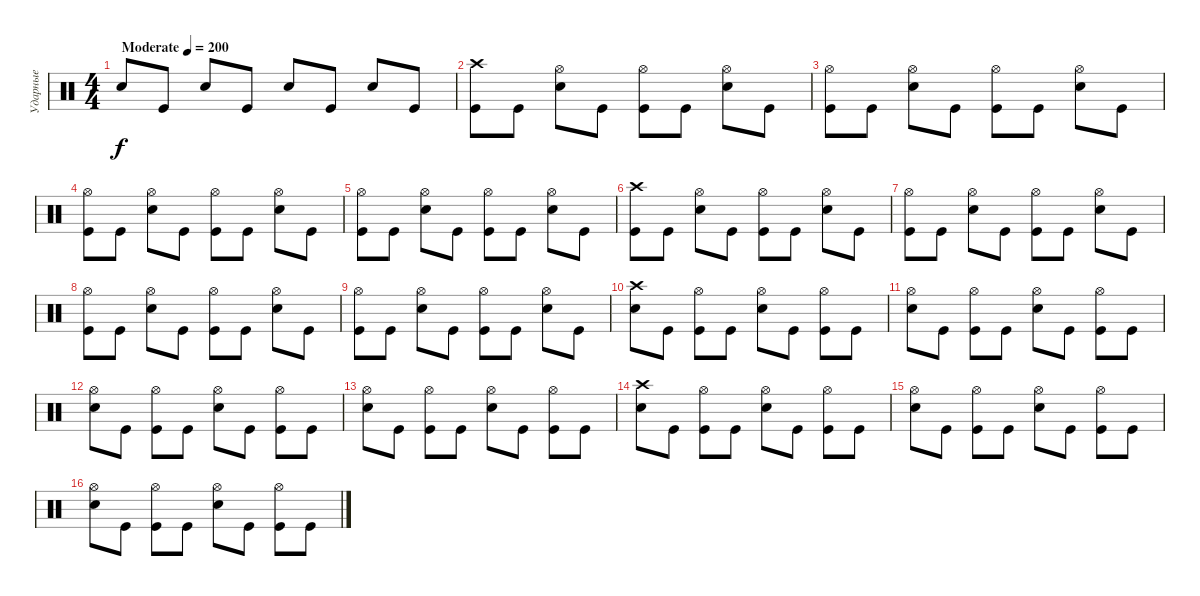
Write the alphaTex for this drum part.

\track ("Ударные" "Ударные") {instrument percussion}
\staff {score}
\articulation defaults
\ts (4 4)
\tempo (200 "Moderate")
\clef neutral
\ks c "Snare (hit) 2".8{dy f} "Kick (hit)".8 "Snare (hit) 2".8 "Kick (hit)".8 "Snare (hit) 2".8 "Kick (hit)".8 "Snare (hit) 2".8 "Kick (hit)".8
|
("Kick (hit)" "Crash high (hit)").8 "Kick (hit)".8 ("Snare (hit) 2" "Hi-Hat (open)").8 "Kick (hit)".8 ("Kick (hit)" "Hi-Hat (open)").8 "Kick (hit)".8 ("Snare (hit) 2" "Hi-Hat (open)").8 "Kick (hit)".8 |
("Kick (hit)" "Hi-Hat (open)").8 "Kick (hit)".8 ("Snare (hit) 2" "Hi-Hat (open)").8 "Kick (hit)".8 ("Kick (hit)" "Hi-Hat (open)").8 "Kick (hit)".8 ("Snare (hit) 2" "Hi-Hat (open)").8 "Kick (hit)".8 |
("Kick (hit)" "Hi-Hat (open)").8 "Kick (hit)".8 ("Snare (hit) 2" "Hi-Hat (open)").8 "Kick (hit)".8 ("Kick (hit)" "Hi-Hat (open)").8 "Kick (hit)".8 ("Snare (hit) 2" "Hi-Hat (open)").8 "Kick (hit)".8 |
("Kick (hit)" "Hi-Hat (open)").8 "Kick (hit)".8 ("Snare (hit) 2" "Hi-Hat (open)").8 "Kick (hit)".8 ("Kick (hit)" "Hi-Hat (open)").8 "Kick (hit)".8 ("Snare (hit) 2" "Hi-Hat (open)").8 "Kick (hit)".8 |
("Kick (hit)" "Crash high (hit)").8 "Kick (hit)".8 ("Snare (hit) 2" "Hi-Hat (open)").8 "Kick (hit)".8 ("Kick (hit)" "Hi-Hat (open)").8 "Kick (hit)".8 ("Snare (hit) 2" "Hi-Hat (open)").8 "Kick (hit)".8 |
("Kick (hit)" "Hi-Hat (open)").8 "Kick (hit)".8 ("Snare (hit) 2" "Hi-Hat (open)").8 "Kick (hit)".8 ("Kick (hit)" "Hi-Hat (open)").8 "Kick (hit)".8 ("Snare (hit) 2" "Hi-Hat (open)").8 "Kick (hit)".8 |
("Kick (hit)" "Hi-Hat (open)").8 "Kick (hit)".8 ("Snare (hit) 2" "Hi-Hat (open)").8 "Kick (hit)".8 ("Kick (hit)" "Hi-Hat (open)").8 "Kick (hit)".8 ("Snare (hit) 2" "Hi-Hat (open)").8 "Kick (hit)".8 |
("Kick (hit)" "Hi-Hat (open)").8 "Kick (hit)".8 ("Snare (hit) 2" "Hi-Hat (open)").8 "Kick (hit)".8 ("Kick (hit)" "Hi-Hat (open)").8 "Kick (hit)".8 ("Snare (hit) 2" "Hi-Hat (open)").8 "Kick (hit)".8 |
("Snare (hit) 2" "Crash high (hit)").8 "Kick (hit)".8 ("Kick (hit)" "Hi-Hat (open)").8 "Kick (hit)".8 ("Snare (hit) 2" "Hi-Hat (open)").8 "Kick (hit)".8 ("Kick (hit)" "Hi-Hat (open)").8 "Kick (hit)".8 |
("Snare (hit) 2" "Hi-Hat (open)").8 "Kick (hit)".8 ("Kick (hit)" "Hi-Hat (open)").8 "Kick (hit)".8 ("Snare (hit) 2" "Hi-Hat (open)").8 "Kick (hit)".8 ("Kick (hit)" "Hi-Hat (open)").8 "Kick (hit)".8 |
("Snare (hit) 2" "Hi-Hat (open)").8 "Kick (hit)".8 ("Kick (hit)" "Hi-Hat (open)").8 "Kick (hit)".8 ("Snare (hit) 2" "Hi-Hat (open)").8 "Kick (hit)".8 ("Kick (hit)" "Hi-Hat (open)").8 "Kick (hit)".8 |
("Snare (hit) 2" "Hi-Hat (open)").8 "Kick (hit)".8 ("Kick (hit)" "Hi-Hat (open)").8 "Kick (hit)".8 ("Snare (hit) 2" "Hi-Hat (open)").8 "Kick (hit)".8 ("Kick (hit)" "Hi-Hat (open)").8 "Kick (hit)".8 |
("Snare (hit) 2" "Crash high (hit)").8 "Kick (hit)".8 ("Kick (hit)" "Hi-Hat (open)").8 "Kick (hit)".8 ("Snare (hit) 2" "Hi-Hat (open)").8 "Kick (hit)".8 ("Kick (hit)" "Hi-Hat (open)").8 "Kick (hit)".8 |
("Snare (hit) 2" "Hi-Hat (open)").8 "Kick (hit)".8 ("Kick (hit)" "Hi-Hat (open)").8 "Kick (hit)".8 ("Snare (hit) 2" "Hi-Hat (open)").8 "Kick (hit)".8 ("Kick (hit)" "Hi-Hat (open)").8 "Kick (hit)".8 |
("Snare (hit) 2" "Hi-Hat (open)").8 "Kick (hit)".8 ("Kick (hit)" "Hi-Hat (open)").8 "Kick (hit)".8 ("Snare (hit) 2" "Hi-Hat (open)").8 "Kick (hit)".8 ("Kick (hit)" "Hi-Hat (open)").8 "Kick (hit)".8
